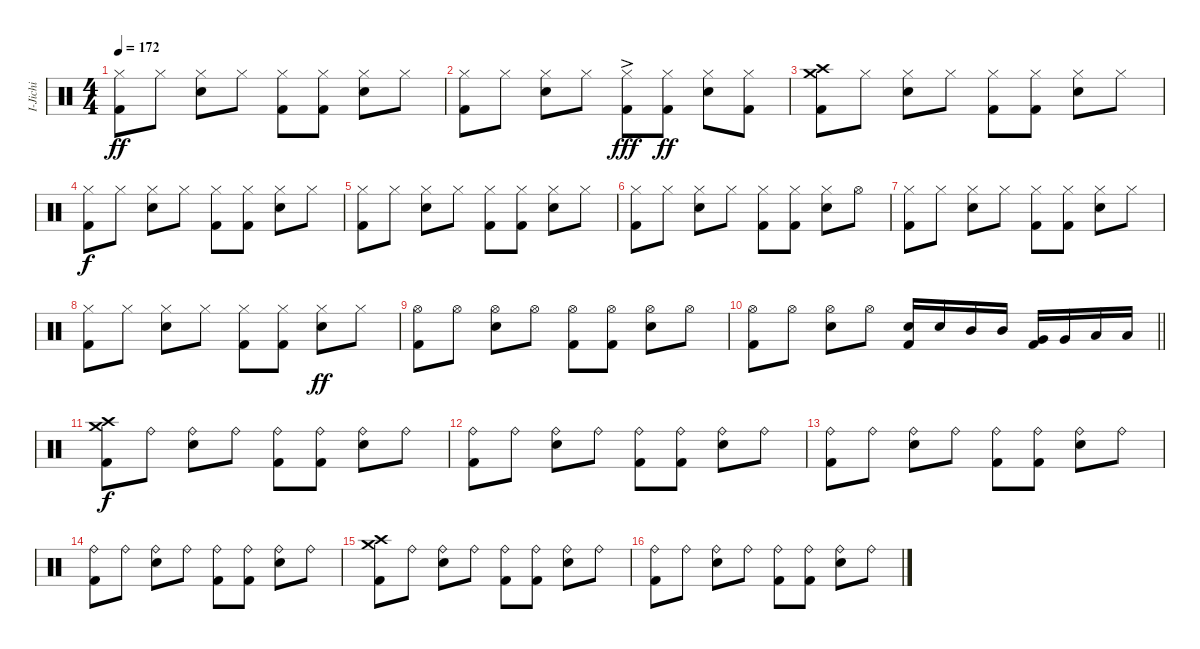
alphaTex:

\track ("I-Jichi" "I-Jichi") {instrument percussion}
\staff {score}
\articulation defaults
\ts (4 4)
\tempo 172
\clef neutral
\ks c
("Hi-Hat (closed)" "Kick (hit) 2").8{dy ff} "Hi-Hat (closed)".8 ("Hi-Hat (closed)" "Electric Snare (hit)").8 "Hi-Hat (closed)".8 ("Hi-Hat (closed)" "Kick (hit) 2").8 ("Hi-Hat (closed)" "Kick (hit) 2").8 ("Hi-Hat (closed)" "Electric Snare (hit)").8 "Hi-Hat (closed)".8 |
("Hi-Hat (closed)" "Kick (hit) 2").8 "Hi-Hat (closed)".8 ("Hi-Hat (closed)" "Electric Snare (hit)").8 "Hi-Hat (closed)".8 ("Hi-Hat (closed)"{ac} "Kick (hit) 2").8{dy fff} ("Hi-Hat (closed)" "Kick (hit) 2").8{dy ff} ("Hi-Hat (closed)" "Electric Snare (hit)").8 ("Hi-Hat (closed)" "Kick (hit) 2").8 |
("Crash high (hit)" "Crash medium (hit)" "Kick (hit) 2").8 "Hi-Hat (closed)".8 ("Hi-Hat (closed)" "Electric Snare (hit)").8 "Hi-Hat (closed)".8 ("Hi-Hat (closed)" "Kick (hit) 2").8 ("Hi-Hat (closed)" "Kick (hit) 2").8 ("Hi-Hat (closed)" "Electric Snare (hit)").8 "Hi-Hat (closed)".8 |
("Hi-Hat (closed)" "Kick (hit) 2").8{dy f} "Hi-Hat (closed)".8 ("Hi-Hat (closed)" "Electric Snare (hit)").8 "Hi-Hat (closed)".8 ("Hi-Hat (closed)" "Kick (hit) 2").8 ("Hi-Hat (closed)" "Kick (hit) 2").8 ("Hi-Hat (closed)" "Electric Snare (hit)").8 "Hi-Hat (closed)".8 |
("Hi-Hat (closed)" "Kick (hit) 2").8 "Hi-Hat (closed)".8 ("Hi-Hat (closed)" "Electric Snare (hit)").8 "Hi-Hat (closed)".8 ("Hi-Hat (closed)" "Kick (hit) 2").8 ("Hi-Hat (closed)" "Kick (hit) 2").8 ("Hi-Hat (closed)" "Electric Snare (hit)").8 "Hi-Hat (closed)".8 |
("Hi-Hat (closed)" "Kick (hit) 2").8 "Hi-Hat (closed)".8 ("Hi-Hat (closed)" "Electric Snare (hit)").8 "Hi-Hat (closed)".8 ("Hi-Hat (closed)" "Kick (hit) 2").8 ("Hi-Hat (closed)" "Kick (hit) 2").8 ("Hi-Hat (closed)" "Electric Snare (hit)").8 "Hi-Hat (open)".8 |
("Hi-Hat (closed)" "Kick (hit) 2").8 "Hi-Hat (closed)".8 ("Hi-Hat (closed)" "Electric Snare (hit)").8 "Hi-Hat (closed)".8 ("Hi-Hat (closed)" "Kick (hit) 2").8 ("Hi-Hat (closed)" "Kick (hit) 2").8 ("Hi-Hat (closed)" "Electric Snare (hit)").8 "Hi-Hat (closed)".8 |
("Hi-Hat (closed)" "Kick (hit) 2").8 "Hi-Hat (closed)".8 ("Hi-Hat (closed)" "Electric Snare (hit)").8 "Hi-Hat (closed)".8 ("Hi-Hat (closed)" "Kick (hit) 2").8 ("Hi-Hat (closed)" "Kick (hit) 2").8 ("Hi-Hat (closed)" "Electric Snare (hit)").8{dy ff} "Hi-Hat (closed)".8 |
("Hi-Hat (open)" "Kick (hit) 2").8 "Hi-Hat (open)".8 ("Hi-Hat (open)" "Electric Snare (hit)").8 "Hi-Hat (open)".8 ("Hi-Hat (open)" "Kick (hit) 2").8 ("Hi-Hat (open)" "Kick (hit) 2").8 ("Hi-Hat (open)" "Electric Snare (hit)").8 "Hi-Hat (open)".8 |
\barLineRight lightlight
("Hi-Hat (open)" "Kick (hit) 2").8 "Hi-Hat (open)".8 ("Hi-Hat (open)" "Electric Snare (hit)").8 "Hi-Hat (open)".8 ("Electric Snare (hit)" "Kick (hit) 2").16 "Electric Snare (hit)".16 "Mid Tom (hit)".16 "Mid Tom (hit)".16 ("Very Low Tom (hit)" "Kick (hit) 2").16 "Very Low Tom (hit)".16 "Low Floor Tom (hit)".16 "Low Floor Tom (hit)".16 |
("Crash high (hit)" "Crash medium (hit)" "Kick (hit) 2").8{dy f} "Ride (bell)".8 ("Ride (bell)" "Electric Snare (hit)").8 "Ride (bell)".8 ("Ride (bell)" "Kick (hit) 2").8 ("Ride (bell)" "Kick (hit) 2").8 ("Ride (bell)" "Electric Snare (hit)").8 "Ride (bell)".8 |
("Ride (bell)" "Kick (hit) 2").8 "Ride (bell)".8 ("Ride (bell)" "Electric Snare (hit)").8 "Ride (bell)".8 ("Ride (bell)" "Kick (hit) 2").8 ("Ride (bell)" "Kick (hit) 2").8 ("Ride (bell)" "Electric Snare (hit)").8 "Ride (bell)".8 |
("Ride (bell)" "Kick (hit) 2").8 "Ride (bell)".8 ("Ride (bell)" "Electric Snare (hit)").8 "Ride (bell)".8 ("Ride (bell)" "Kick (hit) 2").8 ("Ride (bell)" "Kick (hit) 2").8 ("Ride (bell)" "Electric Snare (hit)").8 "Ride (bell)".8 |
("Ride (bell)" "Kick (hit) 2").8 "Ride (bell)".8 ("Ride (bell)" "Electric Snare (hit)").8 "Ride (bell)".8 ("Ride (bell)" "Kick (hit) 2").8 ("Ride (bell)" "Kick (hit) 2").8 ("Ride (bell)" "Electric Snare (hit)").8 "Ride (bell)".8 |
("Crash high (hit)" "Crash medium (hit)" "Kick (hit) 2").8 "Ride (bell)".8 ("Ride (bell)" "Electric Snare (hit)").8 "Ride (bell)".8 ("Ride (bell)" "Kick (hit) 2").8 ("Ride (bell)" "Kick (hit) 2").8 ("Ride (bell)" "Electric Snare (hit)").8 "Ride (bell)".8 |
("Ride (bell)" "Kick (hit) 2").8 "Ride (bell)".8 ("Ride (bell)" "Electric Snare (hit)").8 "Ride (bell)".8 ("Ride (bell)" "Kick (hit) 2").8 ("Ride (bell)" "Kick (hit) 2").8 ("Ride (bell)" "Electric Snare (hit)").8 "Ride (bell)".8
